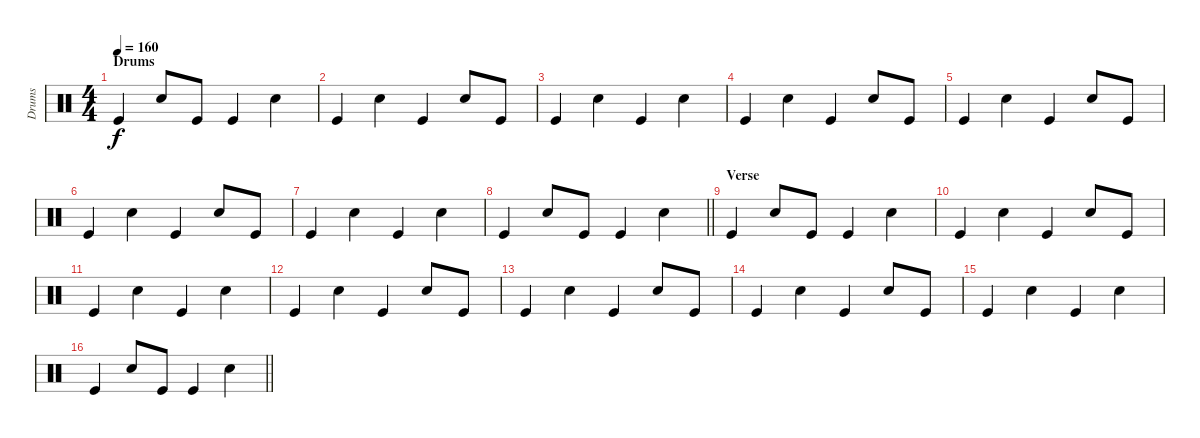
\track ("Drums" "Drums") {instrument percussion}
\staff {score}
\articulation defaults
\ts (4 4)
\section ("" "Drums")
\tempo 160
\clef neutral
\ks c "Kick (hit)".4{dy f} "Snare (hit) 2".8 "Kick (hit)".8 "Kick (hit)".4 "Snare (hit) 2".4
|
"Kick (hit)".4 "Snare (hit) 2".4 "Kick (hit)".4 "Snare (hit) 2".8 "Kick (hit)".8 |
"Kick (hit)".4 "Snare (hit) 2".4 "Kick (hit)".4 "Snare (hit) 2".4 |
"Kick (hit)".4 "Snare (hit) 2".4 "Kick (hit)".4 "Snare (hit) 2".8 "Kick (hit)".8 |
"Kick (hit)".4 "Snare (hit) 2".4 "Kick (hit)".4 "Snare (hit) 2".8 "Kick (hit)".8 |
"Kick (hit)".4 "Snare (hit) 2".4 "Kick (hit)".4 "Snare (hit) 2".8 "Kick (hit)".8 |
"Kick (hit)".4 "Snare (hit) 2".4 "Kick (hit)".4 "Snare (hit) 2".4 |
\barLineRight lightlight "Kick (hit)".4 "Snare (hit) 2".8 "Kick (hit)".8 "Kick (hit)".4 "Snare (hit) 2".4
|
\section ("" "Verse")
"Kick (hit)".4 "Snare (hit) 2".8 "Kick (hit)".8 "Kick (hit)".4 "Snare (hit) 2".4 |
"Kick (hit)".4 "Snare (hit) 2".4 "Kick (hit)".4 "Snare (hit) 2".8 "Kick (hit)".8 |
"Kick (hit)".4 "Snare (hit) 2".4 "Kick (hit)".4 "Snare (hit) 2".4 |
"Kick (hit)".4 "Snare (hit) 2".4 "Kick (hit)".4 "Snare (hit) 2".8 "Kick (hit)".8 |
"Kick (hit)".4 "Snare (hit) 2".4 "Kick (hit)".4 "Snare (hit) 2".8 "Kick (hit)".8 |
"Kick (hit)".4 "Snare (hit) 2".4 "Kick (hit)".4 "Snare (hit) 2".8 "Kick (hit)".8 |
"Kick (hit)".4 "Snare (hit) 2".4 "Kick (hit)".4 "Snare (hit) 2".4 |
\barLineRight lightlight "Kick (hit)".4 "Snare (hit) 2".8 "Kick (hit)".8 "Kick (hit)".4 "Snare (hit) 2".4
